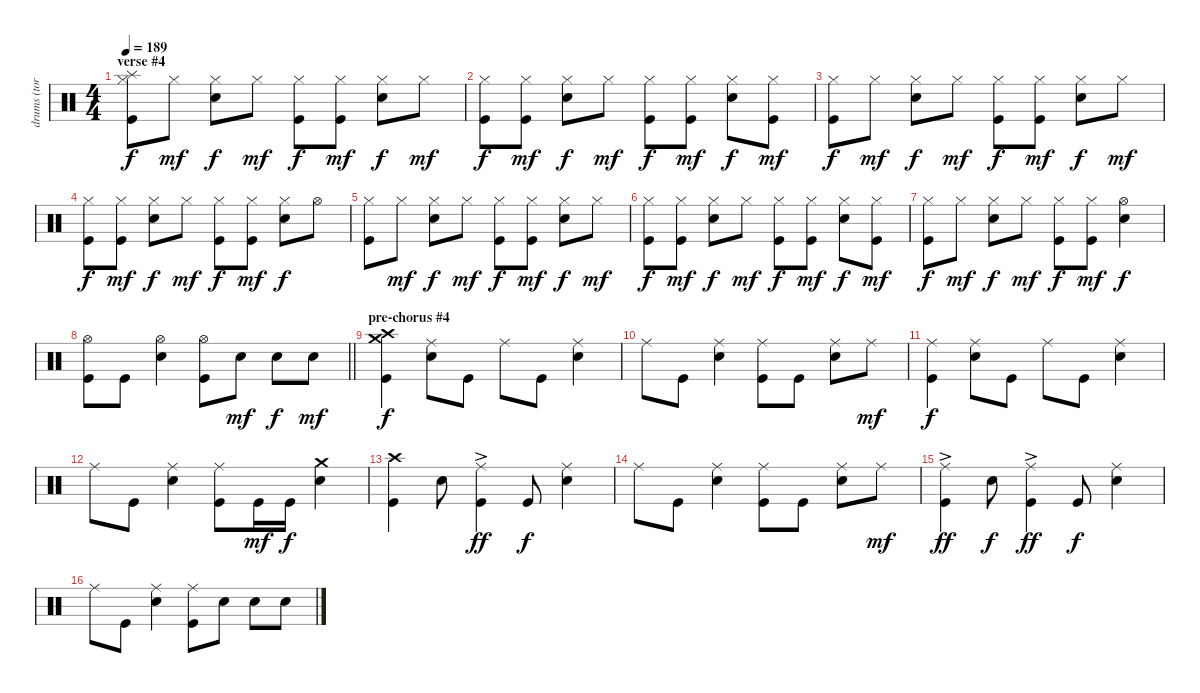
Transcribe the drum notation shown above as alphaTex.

\track ("drums (tora)" "drums (tor") {instrument percussion}
\staff {score}
\articulation defaults
\ts (4 4)
\section ("" "verse #4")
\tempo 189
\clef neutral
\ks c
("Splash (hit)" "Hi-Hat (closed)" "Kick (hit)").8{dy f} "Hi-Hat (closed)".8{dy mf} ("Hi-Hat (closed)" "Snare (hit) 2").8{dy f} "Hi-Hat (closed)".8{dy mf} ("Hi-Hat (closed)" "Kick (hit)").8{dy f} ("Hi-Hat (closed)" "Kick (hit)").8{dy mf} ("Hi-Hat (closed)" "Snare (hit) 2").8{dy f} "Hi-Hat (closed)".8{dy mf} |
("Hi-Hat (closed)" "Kick (hit)").8{dy f} ("Hi-Hat (closed)" "Kick (hit)").8{dy mf} ("Hi-Hat (closed)" "Snare (hit) 2").8{dy f} "Hi-Hat (closed)".8{dy mf} ("Hi-Hat (closed)" "Kick (hit)").8{dy f} ("Hi-Hat (closed)" "Kick (hit)").8{dy mf} ("Hi-Hat (closed)" "Snare (hit) 2").8{dy f} ("Hi-Hat (closed)" "Kick (hit)").8{dy mf} |
("Hi-Hat (closed)" "Kick (hit)").8{dy f} "Hi-Hat (closed)".8{dy mf} ("Hi-Hat (closed)" "Snare (hit) 2").8{dy f} "Hi-Hat (closed)".8{dy mf} ("Hi-Hat (closed)" "Kick (hit)").8{dy f} ("Hi-Hat (closed)" "Kick (hit)").8{dy mf} ("Hi-Hat (closed)" "Snare (hit) 2").8{dy f} "Hi-Hat (closed)".8{dy mf} |
("Hi-Hat (closed)" "Kick (hit)").8{dy f} ("Hi-Hat (closed)" "Kick (hit)").8{dy mf} ("Hi-Hat (closed)" "Snare (hit) 2").8{dy f} "Hi-Hat (closed)".8{dy mf} ("Hi-Hat (closed)" "Kick (hit)").8{dy f} ("Hi-Hat (closed)" "Kick (hit)").8{dy mf} ("Hi-Hat (closed)" "Snare (hit) 2").8{dy f} "Hi-Hat (open)".8 |
("Hi-Hat (closed)" "Kick (hit)").8 "Hi-Hat (closed)".8{dy mf} ("Hi-Hat (closed)" "Snare (hit) 2").8{dy f} "Hi-Hat (closed)".8{dy mf} ("Hi-Hat (closed)" "Kick (hit)").8{dy f} ("Hi-Hat (closed)" "Kick (hit)").8{dy mf} ("Hi-Hat (closed)" "Snare (hit) 2").8{dy f} "Hi-Hat (closed)".8{dy mf} |
("Hi-Hat (closed)" "Kick (hit)").8{dy f} ("Hi-Hat (closed)" "Kick (hit)").8{dy mf} ("Hi-Hat (closed)" "Snare (hit) 2").8{dy f} "Hi-Hat (closed)".8{dy mf} ("Hi-Hat (closed)" "Kick (hit)").8{dy f} ("Hi-Hat (closed)" "Kick (hit)").8{dy mf} ("Hi-Hat (closed)" "Snare (hit) 2").8{dy f} ("Hi-Hat (closed)" "Kick (hit)").8{dy mf} |
("Hi-Hat (closed)" "Kick (hit)").8{dy f} "Hi-Hat (closed)".8{dy mf} ("Hi-Hat (closed)" "Snare (hit) 2").8{dy f} "Hi-Hat (closed)".8{dy mf} ("Hi-Hat (closed)" "Kick (hit)").8{dy f} ("Hi-Hat (closed)" "Kick (hit)").8{dy mf} ("Hi-Hat (open)" "Snare (hit) 2").4{dy f} |
\barLineRight lightlight
("Hi-Hat (open)" "Kick (hit)").8 "Kick (hit)".8 ("Hi-Hat (open)" "Snare (hit) 2").4 ("Hi-Hat (open)" "Kick (hit)").8 "Snare (hit) 2".8{dy mf} "Snare (hit) 2".8{dy f} "Snare (hit) 2".8{dy mf} |
\section ("" "pre-chorus #4")
("Crash high (hit)" "Crash medium (hit)" "Kick (hit)").4{dy f} ("Ride (middle)" "Snare (hit) 2").8 "Kick (hit)".8 "Ride (middle)".8 "Kick (hit)".8 ("Ride (middle)" "Snare (hit) 2").4 |
"Ride (middle)".8 "Kick (hit)".8 ("Ride (middle)" "Snare (hit) 2").4 ("Ride (middle)" "Kick (hit)").8 "Kick (hit)".8 ("Ride (middle)" "Snare (hit) 2").8 "Ride (middle)".8{dy mf} |
("Ride (middle)" "Kick (hit)").4{dy f} ("Ride (middle)" "Snare (hit) 2").8 "Kick (hit)".8 "Ride (middle)".8 "Kick (hit)".8 ("Ride (middle)" "Snare (hit) 2").4 |
"Ride (middle)".8 "Kick (hit)".8 ("Ride (middle)" "Snare (hit) 2").4 ("Ride (middle)" "Kick (hit)").8 "Kick (hit)".16{dy mf} "Kick (hit)".16{dy f} ("Crash medium (hit)" "Snare (hit) 2").4 |
("Crash high (hit)" "Kick (hit)").4 "Snare (hit) 2".8 ("Ride (middle)"{ac} "Kick (hit)").4{dy ff} "Kick (hit)".8{dy f} ("Ride (middle)" "Snare (hit) 2").4 |
"Ride (middle)".8 "Kick (hit)".8 ("Ride (middle)" "Snare (hit) 2").4 ("Ride (middle)" "Kick (hit)").8 "Kick (hit)".8 ("Ride (middle)" "Snare (hit) 2").8 "Ride (middle)".8{dy mf} |
("Ride (middle)"{ac} "Kick (hit)").4{dy ff} "Snare (hit) 2".8{dy f} ("Ride (middle)"{ac} "Kick (hit)").4{dy ff} "Kick (hit)".8{dy f} ("Ride (middle)" "Snare (hit) 2").4 |
"Ride (middle)".8 "Kick (hit)".8 ("Ride (middle)" "Snare (hit) 2").4 ("Ride (middle)" "Kick (hit)").8 "Snare (hit) 2".8 "Snare (hit) 2".8 "Snare (hit) 2".8
